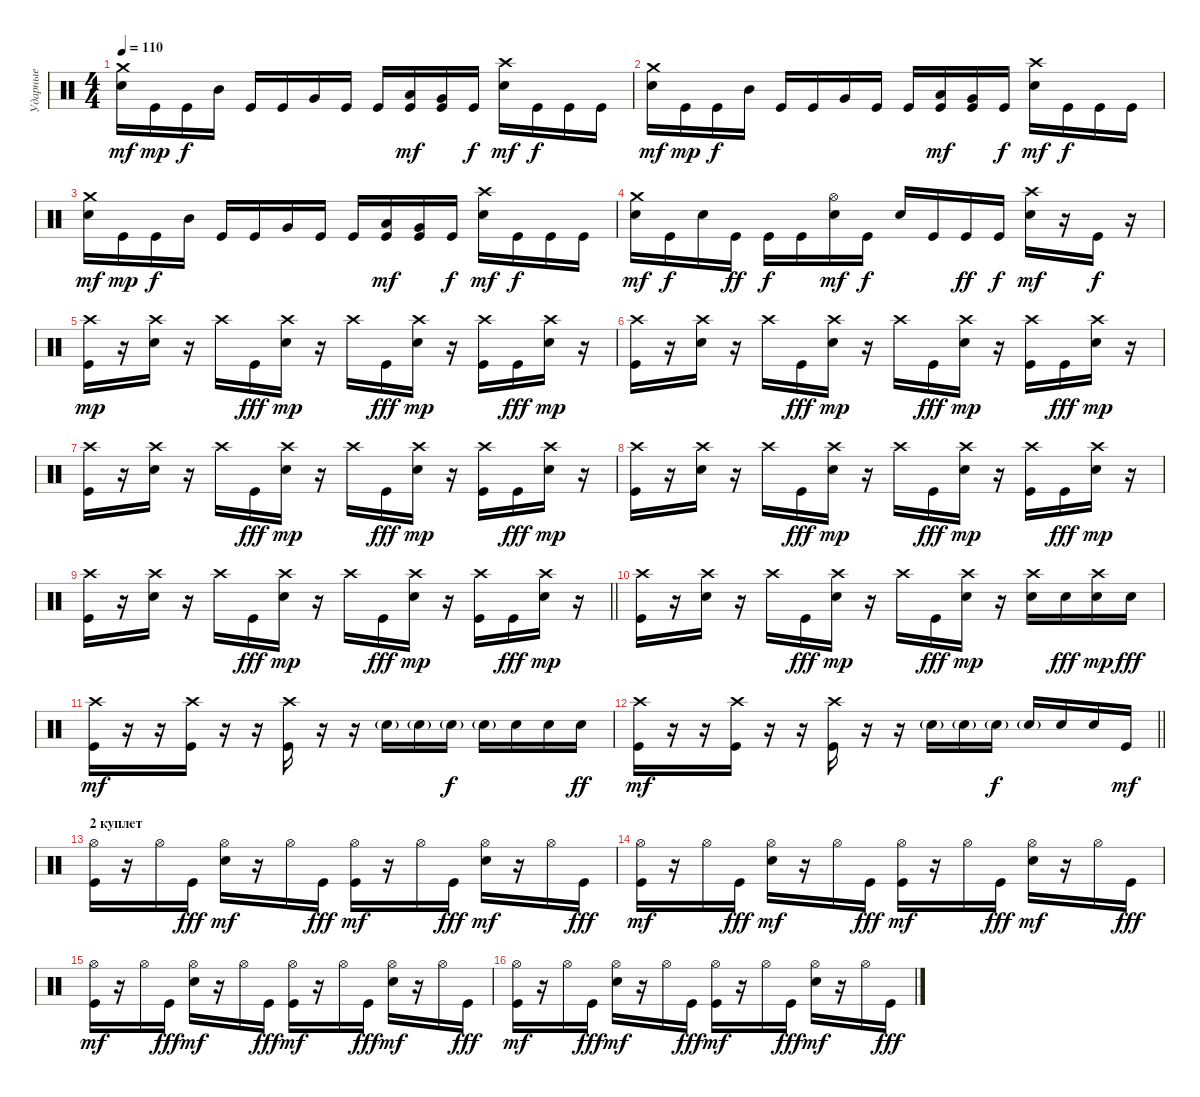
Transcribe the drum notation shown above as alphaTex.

\track ("Ударные" "Ударные") {instrument percussion}
\staff {score}
\articulation defaults
\ts (4 4)
\tempo 110
\clef neutral
\ks c
("Electric Snare (hit)" "Crash medium (hit)").16{dy mf} "Kick (hit)".16{dy mp} "Kick (hit)".16{dy f} "Mid Tom (hit)".16 "Kick (hit)".16 "Kick (hit)".16 "Very Low Tom (hit)".16 "Kick (hit)".16 "Kick (hit)".16 ("Low Tom (hit)" "Kick (hit)").16{dy mf} ("Very Low Tom (hit)" "Kick (hit)").16 "Kick (hit)".16{dy f} ("Electric Snare (hit)" "Crash high (hit)").16{dy mf} "Kick (hit)".16{dy f} "Kick (hit)".16 "Kick (hit)".16 |
("Electric Snare (hit)" "Crash medium (hit)").16{dy mf} "Kick (hit)".16{dy mp} "Kick (hit)".16{dy f} "Mid Tom (hit)".16 "Kick (hit)".16 "Kick (hit)".16 "Very Low Tom (hit)".16 "Kick (hit)".16 "Kick (hit)".16 ("Low Tom (hit)" "Kick (hit)").16{dy mf} ("Very Low Tom (hit)" "Kick (hit)").16 "Kick (hit)".16{dy f} ("Electric Snare (hit)" "Crash high (hit)").16{dy mf} "Kick (hit)".16{dy f} "Kick (hit)".16 "Kick (hit)".16 |
("Electric Snare (hit)" "Crash medium (hit)").16{dy mf} "Kick (hit)".16{dy mp} "Kick (hit)".16{dy f} "Mid Tom (hit)".16 "Kick (hit)".16 "Kick (hit)".16 "Very Low Tom (hit)".16 "Kick (hit)".16 "Kick (hit)".16 ("Low Tom (hit)" "Kick (hit)").16{dy mf} ("Very Low Tom (hit)" "Kick (hit)").16 "Kick (hit)".16{dy f} ("Electric Snare (hit)" "Crash high (hit)").16{dy mf} "Kick (hit)".16{dy f} "Kick (hit)".16 "Kick (hit)".16 |
("Electric Snare (hit)" "Crash medium (hit)").16{dy mf} "Kick (hit)".16{dy f} "Electric Snare (hit)".16 "Kick (hit)".16{dy ff} "Kick (hit)".16{dy f} "Kick (hit)".16 ("Electric Snare (hit)" "Hi-Hat (open)").16{dy mf} "Kick (hit)".16{dy f} "Electric Snare (hit)".16 "Kick (hit)".16 "Kick (hit)".16{dy ff} "Kick (hit)".16{dy f} ("Electric Snare (hit)" "Crash high (hit)").16{dy mf} r.16 "Kick (hit)".16{dy f} r.16 |
("Kick (hit)" "Crash high (hit)").16{dy mp} r.16 ("Electric Snare (hit)" "Crash high (hit)").16 r.16 "Crash high (hit)".16 "Kick (hit)".16{dy fff} ("Electric Snare (hit)" "Crash high (hit)").16{dy mp} r.16 "Crash high (hit)".16 "Kick (hit)".16{dy fff} ("Electric Snare (hit)" "Crash high (hit)").16{dy mp} r.16 ("Kick (hit)" "Crash high (hit)").16 "Kick (hit)".16{dy fff} ("Electric Snare (hit)" "Crash high (hit)").16{dy mp} r.16 |
("Kick (hit)" "Crash high (hit)").16 r.16 ("Electric Snare (hit)" "Crash high (hit)").16 r.16 "Crash high (hit)".16 "Kick (hit)".16{dy fff} ("Electric Snare (hit)" "Crash high (hit)").16{dy mp} r.16 "Crash high (hit)".16 "Kick (hit)".16{dy fff} ("Electric Snare (hit)" "Crash high (hit)").16{dy mp} r.16 ("Kick (hit)" "Crash high (hit)").16 "Kick (hit)".16{dy fff} ("Electric Snare (hit)" "Crash high (hit)").16{dy mp} r.16 |
("Kick (hit)" "Crash high (hit)").16 r.16 ("Electric Snare (hit)" "Crash high (hit)").16 r.16 "Crash high (hit)".16 "Kick (hit)".16{dy fff} ("Electric Snare (hit)" "Crash high (hit)").16{dy mp} r.16 "Crash high (hit)".16 "Kick (hit)".16{dy fff} ("Electric Snare (hit)" "Crash high (hit)").16{dy mp} r.16 ("Kick (hit)" "Crash high (hit)").16 "Kick (hit)".16{dy fff} ("Electric Snare (hit)" "Crash high (hit)").16{dy mp} r.16 |
("Kick (hit)" "Crash high (hit)").16 r.16 ("Electric Snare (hit)" "Crash high (hit)").16 r.16 "Crash high (hit)".16 "Kick (hit)".16{dy fff} ("Electric Snare (hit)" "Crash high (hit)").16{dy mp} r.16 "Crash high (hit)".16 "Kick (hit)".16{dy fff} ("Electric Snare (hit)" "Crash high (hit)").16{dy mp} r.16 ("Kick (hit)" "Crash high (hit)").16 "Kick (hit)".16{dy fff} ("Electric Snare (hit)" "Crash high (hit)").16{dy mp} r.16 |
\barLineRight lightlight
("Kick (hit)" "Crash high (hit)").16 r.16 ("Electric Snare (hit)" "Crash high (hit)").16 r.16 "Crash high (hit)".16 "Kick (hit)".16{dy fff} ("Electric Snare (hit)" "Crash high (hit)").16{dy mp} r.16 "Crash high (hit)".16 "Kick (hit)".16{dy fff} ("Electric Snare (hit)" "Crash high (hit)").16{dy mp} r.16 ("Kick (hit)" "Crash high (hit)").16 "Kick (hit)".16{dy fff} ("Electric Snare (hit)" "Crash high (hit)").16{dy mp} r.16 |
("Kick (hit)" "Crash high (hit)").16 r.16 ("Electric Snare (hit)" "Crash high (hit)").16 r.16 "Crash high (hit)".16 "Kick (hit)".16{dy fff} ("Electric Snare (hit)" "Crash high (hit)").16{dy mp} r.16 "Crash high (hit)".16 "Kick (hit)".16{dy fff} ("Electric Snare (hit)" "Crash high (hit)").16{dy mp} r.16 ("Electric Snare (hit)" "Crash high (hit)").16 "Electric Snare (hit)".16{dy fff} ("Electric Snare (hit)" "Crash high (hit)").16{dy mp} "Electric Snare (hit)".16{dy fff} |
("Kick (hit)" "Crash high (hit)").16{dy mf} r.16 r.16 ("Kick (hit)" "Crash high (hit)").16 r.16 r.16 ("Kick (hit)" "Crash high (hit)").16 r.16 r.16 "Electric Snare (hit)"{g}.16 "Electric Snare (hit)"{g}.16 "Electric Snare (hit)"{g}.16{dy f} "Electric Snare (hit)"{g}.16 "Electric Snare (hit)".16 "Electric Snare (hit)".16 "Electric Snare (hit)".16{dy ff} |
\barLineRight lightlight
("Kick (hit)" "Crash high (hit)").16{dy mf} r.16 r.16 ("Kick (hit)" "Crash high (hit)").16 r.16 r.16 ("Kick (hit)" "Crash high (hit)").16 r.16 r.16 "Electric Snare (hit)"{g}.16 "Electric Snare (hit)"{g}.16 "Electric Snare (hit)"{g}.16{dy f} "Electric Snare (hit)"{g}.16 "Electric Snare (hit)".16 "Electric Snare (hit)".16 "Kick (hit)".16{dy mf} |
\section ("" "2 куплет")
("Kick (hit)" "Hi-Hat (open)").16 r.16 "Hi-Hat (open)".16 "Kick (hit)".16{dy fff} ("Electric Snare (hit)" "Hi-Hat (open)").16{dy mf} r.16 "Hi-Hat (open)".16 "Kick (hit)".16{dy fff} ("Kick (hit)" "Hi-Hat (open)").16{dy mf} r.16 "Hi-Hat (open)".16 "Kick (hit)".16{dy fff} ("Electric Snare (hit)" "Hi-Hat (open)").16{dy mf} r.16 "Hi-Hat (open)".16 "Kick (hit)".16{dy fff} |
("Kick (hit)" "Hi-Hat (open)").16{dy mf} r.16 "Hi-Hat (open)".16 "Kick (hit)".16{dy fff} ("Electric Snare (hit)" "Hi-Hat (open)").16{dy mf} r.16 "Hi-Hat (open)".16 "Kick (hit)".16{dy fff} ("Kick (hit)" "Hi-Hat (open)").16{dy mf} r.16 "Hi-Hat (open)".16 "Kick (hit)".16{dy fff} ("Electric Snare (hit)" "Hi-Hat (open)").16{dy mf} r.16 "Hi-Hat (open)".16 "Kick (hit)".16{dy fff} |
("Kick (hit)" "Hi-Hat (open)").16{dy mf} r.16 "Hi-Hat (open)".16 "Kick (hit)".16{dy fff} ("Electric Snare (hit)" "Hi-Hat (open)").16{dy mf} r.16 "Hi-Hat (open)".16 "Kick (hit)".16{dy fff} ("Kick (hit)" "Hi-Hat (open)").16{dy mf} r.16 "Hi-Hat (open)".16 "Kick (hit)".16{dy fff} ("Electric Snare (hit)" "Hi-Hat (open)").16{dy mf} r.16 "Hi-Hat (open)".16 "Kick (hit)".16{dy fff} |
("Kick (hit)" "Hi-Hat (open)").16{dy mf} r.16 "Hi-Hat (open)".16 "Kick (hit)".16{dy fff} ("Electric Snare (hit)" "Hi-Hat (open)").16{dy mf} r.16 "Hi-Hat (open)".16 "Kick (hit)".16{dy fff} ("Kick (hit)" "Hi-Hat (open)").16{dy mf} r.16 "Hi-Hat (open)".16 "Kick (hit)".16{dy fff} ("Electric Snare (hit)" "Hi-Hat (open)").16{dy mf} r.16 "Hi-Hat (open)".16 "Kick (hit)".16{dy fff}
